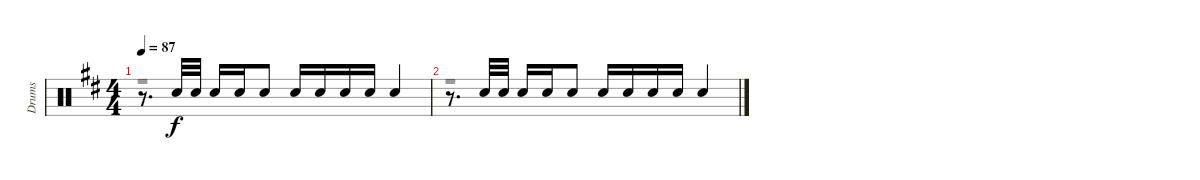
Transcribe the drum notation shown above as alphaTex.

\track ("Drums" "Drums") {instrument percussion}
\staff {score}
\articulation defaults
\voice
\ts (4 4)
\tempo 87
\clef neutral
\ks d
r.8{d dy f} "Snare (hit) 2".32 "Snare (hit) 2".32 "Snare (hit) 2".16 "Snare (hit) 2".16 "Snare (hit) 2".8 "Snare (hit) 2".16 "Snare (hit) 2".16 "Snare (hit) 2".16 "Snare (hit) 2".16 "Snare (hit) 2".4 |
r.8{d} "Snare (hit) 2".32 "Snare (hit) 2".32 "Snare (hit) 2".16 "Snare (hit) 2".16 "Snare (hit) 2".8 "Snare (hit) 2".16 "Snare (hit) 2".16 "Snare (hit) 2".16 "Snare (hit) 2".16 "Snare (hit) 2".4
\voice
\clef neutral
\ottava regular
\simile none
\ks d
r.1{dy fff} |
r.1
